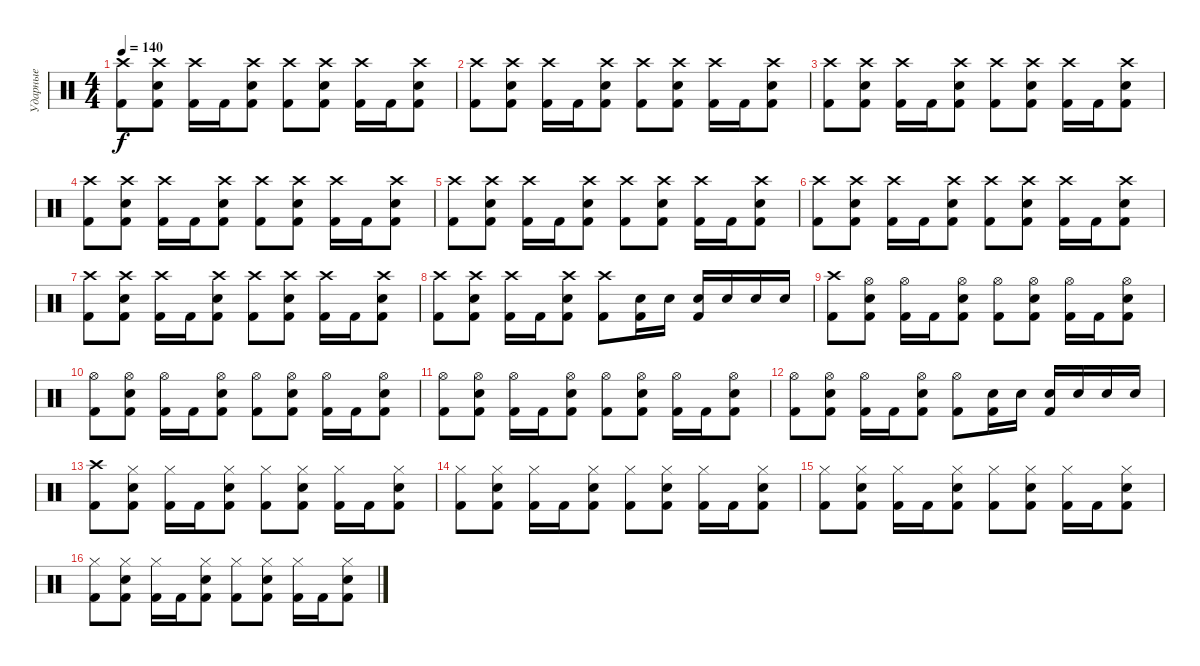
\track ("Ударные" "Ударные") {instrument percussion}
\staff {score}
\articulation defaults
\ts (4 4)
\tempo 140
\clef neutral
\ks c
("Crash high (hit)" "Kick (hit) 2").8{dy f} ("Crash high (hit)" "Electric Snare (hit)" "Kick (hit) 2").8 ("Crash high (hit)" "Kick (hit) 2").16 "Kick (hit) 2".16 ("Crash high (hit)" "Electric Snare (hit)" "Kick (hit) 2").8 ("Crash high (hit)" "Kick (hit) 2").8 ("Crash high (hit)" "Electric Snare (hit)" "Kick (hit) 2").8 ("Crash high (hit)" "Kick (hit) 2").16 "Kick (hit) 2".16 ("Crash high (hit)" "Electric Snare (hit)" "Kick (hit) 2").8 |
("Crash high (hit)" "Kick (hit) 2").8 ("Crash high (hit)" "Electric Snare (hit)" "Kick (hit) 2").8 ("Crash high (hit)" "Kick (hit) 2").16 "Kick (hit) 2".16 ("Crash high (hit)" "Electric Snare (hit)" "Kick (hit) 2").8 ("Crash high (hit)" "Kick (hit) 2").8 ("Crash high (hit)" "Electric Snare (hit)" "Kick (hit) 2").8 ("Crash high (hit)" "Kick (hit) 2").16 "Kick (hit) 2".16 ("Crash high (hit)" "Electric Snare (hit)" "Kick (hit) 2").8 |
("Crash high (hit)" "Kick (hit) 2").8 ("Crash high (hit)" "Electric Snare (hit)" "Kick (hit) 2").8 ("Crash high (hit)" "Kick (hit) 2").16 "Kick (hit) 2".16 ("Crash high (hit)" "Electric Snare (hit)" "Kick (hit) 2").8 ("Crash high (hit)" "Kick (hit) 2").8 ("Crash high (hit)" "Electric Snare (hit)" "Kick (hit) 2").8 ("Crash high (hit)" "Kick (hit) 2").16 "Kick (hit) 2".16 ("Crash high (hit)" "Electric Snare (hit)" "Kick (hit) 2").8 |
("Crash high (hit)" "Kick (hit) 2").8 ("Crash high (hit)" "Electric Snare (hit)" "Kick (hit) 2").8 ("Crash high (hit)" "Kick (hit) 2").16 "Kick (hit) 2".16 ("Crash high (hit)" "Electric Snare (hit)" "Kick (hit) 2").8 ("Crash high (hit)" "Kick (hit) 2").8 ("Crash high (hit)" "Electric Snare (hit)" "Kick (hit) 2").8 ("Crash high (hit)" "Kick (hit) 2").16 "Kick (hit) 2".16 ("Crash high (hit)" "Electric Snare (hit)" "Kick (hit) 2").8 |
("Crash high (hit)" "Kick (hit) 2").8 ("Crash high (hit)" "Electric Snare (hit)" "Kick (hit) 2").8 ("Crash high (hit)" "Kick (hit) 2").16 "Kick (hit) 2".16 ("Crash high (hit)" "Electric Snare (hit)" "Kick (hit) 2").8 ("Crash high (hit)" "Kick (hit) 2").8 ("Crash high (hit)" "Electric Snare (hit)" "Kick (hit) 2").8 ("Crash high (hit)" "Kick (hit) 2").16 "Kick (hit) 2".16 ("Crash high (hit)" "Electric Snare (hit)" "Kick (hit) 2").8 |
("Crash high (hit)" "Kick (hit) 2").8 ("Crash high (hit)" "Electric Snare (hit)" "Kick (hit) 2").8 ("Crash high (hit)" "Kick (hit) 2").16 "Kick (hit) 2".16 ("Crash high (hit)" "Electric Snare (hit)" "Kick (hit) 2").8 ("Crash high (hit)" "Kick (hit) 2").8 ("Crash high (hit)" "Electric Snare (hit)" "Kick (hit) 2").8 ("Crash high (hit)" "Kick (hit) 2").16 "Kick (hit) 2".16 ("Crash high (hit)" "Electric Snare (hit)" "Kick (hit) 2").8 |
("Crash high (hit)" "Kick (hit) 2").8 ("Crash high (hit)" "Electric Snare (hit)" "Kick (hit) 2").8 ("Crash high (hit)" "Kick (hit) 2").16 "Kick (hit) 2".16 ("Crash high (hit)" "Electric Snare (hit)" "Kick (hit) 2").8 ("Crash high (hit)" "Kick (hit) 2").8 ("Crash high (hit)" "Electric Snare (hit)" "Kick (hit) 2").8 ("Crash high (hit)" "Kick (hit) 2").16 "Kick (hit) 2".16 ("Crash high (hit)" "Electric Snare (hit)" "Kick (hit) 2").8 |
("Crash high (hit)" "Kick (hit) 2").8 ("Crash high (hit)" "Electric Snare (hit)" "Kick (hit) 2").8 ("Crash high (hit)" "Kick (hit) 2").16 "Kick (hit) 2".16 ("Crash high (hit)" "Electric Snare (hit)" "Kick (hit) 2").8 ("Crash high (hit)" "Kick (hit) 2").8 ("Electric Snare (hit)" "Kick (hit) 2").16 "Electric Snare (hit)".16 ("Electric Snare (hit)" "Kick (hit) 2").16 "Electric Snare (hit)".16 "Electric Snare (hit)".16 "Electric Snare (hit)".16 |
("Crash high (hit)" "Kick (hit) 2").8 ("Hi-Hat (open)" "Electric Snare (hit)" "Kick (hit) 2").8 ("Hi-Hat (open)" "Kick (hit) 2").16 "Kick (hit) 2".16 ("Hi-Hat (open)" "Electric Snare (hit)" "Kick (hit) 2").8 ("Hi-Hat (open)" "Kick (hit) 2").8 ("Hi-Hat (open)" "Electric Snare (hit)" "Kick (hit) 2").8 ("Hi-Hat (open)" "Kick (hit) 2").16 "Kick (hit) 2".16 ("Hi-Hat (open)" "Electric Snare (hit)" "Kick (hit) 2").8 |
("Hi-Hat (open)" "Kick (hit) 2").8 ("Hi-Hat (open)" "Electric Snare (hit)" "Kick (hit) 2").8 ("Hi-Hat (open)" "Kick (hit) 2").16 "Kick (hit) 2".16 ("Hi-Hat (open)" "Electric Snare (hit)" "Kick (hit) 2").8 ("Hi-Hat (open)" "Kick (hit) 2").8 ("Hi-Hat (open)" "Electric Snare (hit)" "Kick (hit) 2").8 ("Hi-Hat (open)" "Kick (hit) 2").16 "Kick (hit) 2".16 ("Hi-Hat (open)" "Electric Snare (hit)" "Kick (hit) 2").8 |
("Hi-Hat (open)" "Kick (hit) 2").8 ("Hi-Hat (open)" "Electric Snare (hit)" "Kick (hit) 2").8 ("Hi-Hat (open)" "Kick (hit) 2").16 "Kick (hit) 2".16 ("Hi-Hat (open)" "Electric Snare (hit)" "Kick (hit) 2").8 ("Hi-Hat (open)" "Kick (hit) 2").8 ("Hi-Hat (open)" "Electric Snare (hit)" "Kick (hit) 2").8 ("Hi-Hat (open)" "Kick (hit) 2").16 "Kick (hit) 2".16 ("Hi-Hat (open)" "Electric Snare (hit)" "Kick (hit) 2").8 |
("Hi-Hat (open)" "Kick (hit) 2").8 ("Hi-Hat (open)" "Electric Snare (hit)" "Kick (hit) 2").8 ("Hi-Hat (open)" "Kick (hit) 2").16 "Kick (hit) 2".16 ("Hi-Hat (open)" "Electric Snare (hit)" "Kick (hit) 2").8 ("Hi-Hat (open)" "Kick (hit) 2").8 ("Electric Snare (hit)" "Kick (hit) 2").16 "Electric Snare (hit)".16 ("Electric Snare (hit)" "Kick (hit) 2").16 "Electric Snare (hit)".16 "Electric Snare (hit)".16 "Electric Snare (hit)".16 |
("Crash high (hit)" "Kick (hit) 2").8 ("Hi-Hat (closed)" "Electric Snare (hit)" "Kick (hit) 2").8 ("Hi-Hat (closed)" "Kick (hit) 2").16 "Kick (hit) 2".16 ("Hi-Hat (closed)" "Electric Snare (hit)" "Kick (hit) 2").8 ("Hi-Hat (closed)" "Kick (hit) 2").8 ("Hi-Hat (closed)" "Electric Snare (hit)" "Kick (hit) 2").8 ("Hi-Hat (closed)" "Kick (hit) 2").16 "Kick (hit) 2".16 ("Hi-Hat (closed)" "Electric Snare (hit)" "Kick (hit) 2").8 |
("Hi-Hat (closed)" "Kick (hit) 2").8 ("Hi-Hat (closed)" "Electric Snare (hit)" "Kick (hit) 2").8 ("Hi-Hat (closed)" "Kick (hit) 2").16 "Kick (hit) 2".16 ("Hi-Hat (closed)" "Electric Snare (hit)" "Kick (hit) 2").8 ("Hi-Hat (closed)" "Kick (hit) 2").8 ("Hi-Hat (closed)" "Electric Snare (hit)" "Kick (hit) 2").8 ("Hi-Hat (closed)" "Kick (hit) 2").16 "Kick (hit) 2".16 ("Hi-Hat (closed)" "Electric Snare (hit)" "Kick (hit) 2").8 |
("Hi-Hat (closed)" "Kick (hit) 2").8 ("Hi-Hat (closed)" "Electric Snare (hit)" "Kick (hit) 2").8 ("Hi-Hat (closed)" "Kick (hit) 2").16 "Kick (hit) 2".16 ("Hi-Hat (closed)" "Electric Snare (hit)" "Kick (hit) 2").8 ("Hi-Hat (closed)" "Kick (hit) 2").8 ("Hi-Hat (closed)" "Electric Snare (hit)" "Kick (hit) 2").8 ("Hi-Hat (closed)" "Kick (hit) 2").16 "Kick (hit) 2".16 ("Hi-Hat (closed)" "Electric Snare (hit)" "Kick (hit) 2").8 |
("Hi-Hat (closed)" "Kick (hit) 2").8 ("Hi-Hat (closed)" "Electric Snare (hit)" "Kick (hit) 2").8 ("Hi-Hat (closed)" "Kick (hit) 2").16 "Kick (hit) 2".16 ("Hi-Hat (closed)" "Electric Snare (hit)" "Kick (hit) 2").8 ("Hi-Hat (closed)" "Kick (hit) 2").8 ("Hi-Hat (closed)" "Electric Snare (hit)" "Kick (hit) 2").8 ("Hi-Hat (closed)" "Kick (hit) 2").16 "Kick (hit) 2".16 ("Hi-Hat (closed)" "Electric Snare (hit)" "Kick (hit) 2").8
